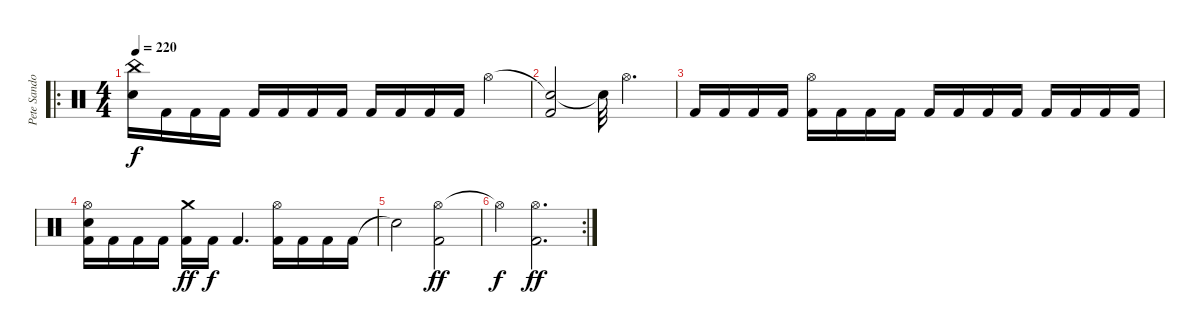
\track ("Pete Sandoval" "Pete Sando") {instrument percussion}
\staff {score}
\articulation defaults
\ro
\ts (4 4)
\tempo 220
\clef neutral
\ks c
("China (hit)" "Electric Snare (hit)").16{dy f} "Kick (hit) 2".16 "Kick (hit) 2".16 "Kick (hit) 2".16 "Kick (hit) 2".16 "Kick (hit) 2".16 "Kick (hit) 2".16 "Kick (hit) 2".16 "Kick (hit) 2".16 "Kick (hit) 2".16 "Kick (hit) 2".16 "Kick (hit) 2".16 "Hi-Hat (open)".4 |
("Snare (hit)"{t} "Kick (hit) 2").2 "Snare (hit)"{t}.32 "Hi-Hat (open)".4{d} |
"Kick (hit) 2".16 "Kick (hit) 2".16 "Kick (hit) 2".16 "Kick (hit) 2".16 ("Hi-Hat (open)" "Kick (hit) 2").16 "Kick (hit) 2".16 "Kick (hit) 2".16 "Kick (hit) 2".16 "Kick (hit) 2".16 "Kick (hit) 2".16 "Kick (hit) 2".16 "Kick (hit) 2".16 "Kick (hit) 2".16 "Kick (hit) 2".16 "Kick (hit) 2".16 "Kick (hit) 2".16 |
("Hi-Hat (open)" "Electric Snare (hit)" "Kick (hit) 2").16 "Kick (hit) 2".16 "Kick (hit) 2".16 "Kick (hit) 2".16 ("Crash medium (hit)" "Kick (hit) 2").16{dy ff} "Kick (hit) 2".16{dy f} "Kick (hit) 2".4{d} ("Hi-Hat (open)" "Kick (hit) 2").16 "Kick (hit) 2".16 "Kick (hit) 2".16 "Kick (hit) 2".16 |
"Snare (hit)"{t}.2 ("Hi-Hat (open)" "Kick (hit) 2").2{dy ff} |
\rc 2 "Hi-Hat (open)"{t}.4{dy f}
("Hi-Hat (open)" "Kick (hit) 2").2{d dy ff}
